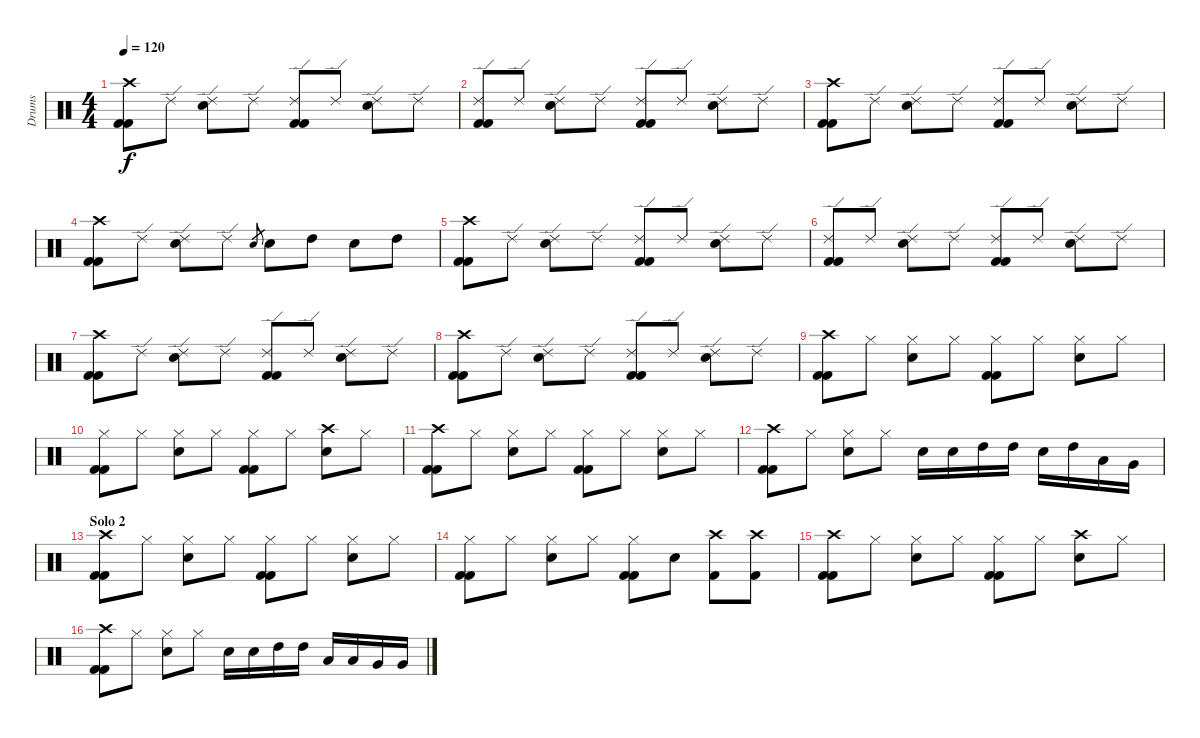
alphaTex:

\track ("Drums" "Drums") {instrument percussion}
\staff {score}
\articulation defaults
\ts (4 4)
\tempo 120
\clef neutral
\ks c
("Crash high (hit)" "Kick (hit) 2" "Kick (hit) 2").8{dy f} "Ride (edge) 2".8 ("Electric Snare (hit)" "Ride (edge) 2").8 "Ride (edge) 2".8 ("Kick (hit) 2" "Kick (hit) 2" "Ride (edge) 2").8 "Ride (edge) 2".8 ("Ride (edge) 2" "Electric Snare (hit)").8 "Ride (edge) 2".8 |
("Ride (edge) 2" "Kick (hit) 2" "Kick (hit) 2").8 "Ride (edge) 2".8 ("Electric Snare (hit)" "Ride (edge) 2").8 "Ride (edge) 2".8 ("Kick (hit) 2" "Kick (hit) 2" "Ride (edge) 2").8 "Ride (edge) 2".8 ("Ride (edge) 2" "Electric Snare (hit)").8 "Ride (edge) 2".8 |
("Crash high (hit)" "Kick (hit) 2" "Kick (hit) 2").8 "Ride (edge) 2".8 ("Electric Snare (hit)" "Ride (edge) 2").8 "Ride (edge) 2".8 ("Kick (hit) 2" "Kick (hit) 2" "Ride (edge) 2").8 "Ride (edge) 2".8 ("Ride (edge) 2" "Electric Snare (hit)").8 "Ride (edge) 2".8 |
("Crash high (hit)" "Kick (hit) 2" "Kick (hit) 2").8 "Ride (edge) 2".8 ("Electric Snare (hit)" "Ride (edge) 2").8 "Ride (edge) 2".8 "Electric Snare (hit)".8{gr} "Electric Snare (hit)".8 "High Tom (hit)".8 "Electric Snare (hit)".8 "High Tom (hit)".8 |
("Crash high (hit)" "Kick (hit) 2" "Kick (hit) 2").8 "Ride (edge) 2".8 ("Electric Snare (hit)" "Ride (edge) 2").8 "Ride (edge) 2".8 ("Kick (hit) 2" "Kick (hit) 2" "Ride (edge) 2").8 "Ride (edge) 2".8 ("Ride (edge) 2" "Electric Snare (hit)").8 "Ride (edge) 2".8 |
("Ride (edge) 2" "Kick (hit) 2" "Kick (hit) 2").8 "Ride (edge) 2".8 ("Electric Snare (hit)" "Ride (edge) 2").8 "Ride (edge) 2".8 ("Kick (hit) 2" "Kick (hit) 2" "Ride (edge) 2").8 "Ride (edge) 2".8 ("Ride (edge) 2" "Electric Snare (hit)").8 "Ride (edge) 2".8 |
("Crash high (hit)" "Kick (hit) 2" "Kick (hit) 2").8 "Ride (edge) 2".8 ("Electric Snare (hit)" "Ride (edge) 2").8 "Ride (edge) 2".8 ("Kick (hit) 2" "Kick (hit) 2" "Ride (edge) 2").8 "Ride (edge) 2".8 ("Ride (edge) 2" "Electric Snare (hit)").8 "Ride (edge) 2".8 |
("Crash high (hit)" "Kick (hit) 2" "Kick (hit) 2").8 "Ride (edge) 2".8 ("Electric Snare (hit)" "Ride (edge) 2").8 "Ride (edge) 2".8 ("Kick (hit) 2" "Kick (hit) 2" "Ride (edge) 2").8 "Ride (edge) 2".8 ("Ride (edge) 2" "Electric Snare (hit)").8 "Ride (edge) 2".8 |
("Crash high (hit)" "Kick (hit) 2" "Kick (hit) 2").8 "Hi-Hat (closed)".8 ("Electric Snare (hit)" "Hi-Hat (closed)").8 "Hi-Hat (closed)".8 ("Kick (hit) 2" "Kick (hit) 2" "Hi-Hat (closed)").8 "Hi-Hat (closed)".8 ("Hi-Hat (closed)" "Electric Snare (hit)").8 "Hi-Hat (closed)".8 |
("Hi-Hat (closed)" "Kick (hit) 2" "Kick (hit) 2").8 "Hi-Hat (closed)".8 ("Electric Snare (hit)" "Hi-Hat (closed)").8 "Hi-Hat (closed)".8 ("Kick (hit) 2" "Kick (hit) 2" "Hi-Hat (closed)").8 "Hi-Hat (closed)".8 ("Crash high (hit)" "Electric Snare (hit)").8 "Hi-Hat (closed)".8 |
("Crash high (hit)" "Kick (hit) 2" "Kick (hit) 2").8 "Hi-Hat (closed)".8 ("Electric Snare (hit)" "Hi-Hat (closed)").8 "Hi-Hat (closed)".8 ("Kick (hit) 2" "Kick (hit) 2" "Hi-Hat (closed)").8 "Hi-Hat (closed)".8 ("Hi-Hat (closed)" "Electric Snare (hit)").8 "Hi-Hat (closed)".8 |
("Crash high (hit)" "Kick (hit) 2" "Kick (hit) 2").8 "Hi-Hat (closed)".8 ("Electric Snare (hit)" "Hi-Hat (closed)").8 "Hi-Hat (closed)".8 "Electric Snare (hit)".16 "Electric Snare (hit)".16 "High Tom (hit)".16 "High Tom (hit)".16 "Electric Snare (hit)".16 "High Tom (hit)".16 "Low Tom (hit)".16 "Very Low Tom (hit)".16 |
\section ("" "Solo 2")
("Crash high (hit)" "Kick (hit) 2" "Kick (hit) 2").8 "Hi-Hat (closed)".8 ("Electric Snare (hit)" "Hi-Hat (closed)").8 "Hi-Hat (closed)".8 ("Kick (hit) 2" "Kick (hit) 2" "Hi-Hat (closed)").8 "Hi-Hat (closed)".8 ("Hi-Hat (closed)" "Electric Snare (hit)").8 "Hi-Hat (closed)".8 |
("Hi-Hat (closed)" "Kick (hit) 2" "Kick (hit) 2").8 "Hi-Hat (closed)".8 ("Electric Snare (hit)" "Hi-Hat (closed)").8 "Hi-Hat (closed)".8 ("Kick (hit) 2" "Kick (hit) 2" "Hi-Hat (closed)").8 "Electric Snare (hit)".8 ("Crash high (hit)" "Kick (hit) 2").8 ("Crash high (hit)" "Kick (hit) 2").8 |
("Crash high (hit)" "Kick (hit) 2" "Kick (hit) 2").8 "Hi-Hat (closed)".8 ("Electric Snare (hit)" "Hi-Hat (closed)").8 "Hi-Hat (closed)".8 ("Kick (hit) 2" "Kick (hit) 2" "Hi-Hat (closed)").8 "Hi-Hat (closed)".8 ("Crash high (hit)" "Electric Snare (hit)").8 "Hi-Hat (closed)".8 |
("Crash high (hit)" "Kick (hit) 2" "Kick (hit) 2").8 "Hi-Hat (closed)".8 ("Electric Snare (hit)" "Hi-Hat (closed)").8 "Hi-Hat (closed)".8 "Electric Snare (hit)".16 "Electric Snare (hit)".16 "High Tom (hit)".16 "High Tom (hit)".16 "Low Tom (hit)".16 "Low Tom (hit)".16 "Very Low Tom (hit)".16 "Very Low Tom (hit)".16
